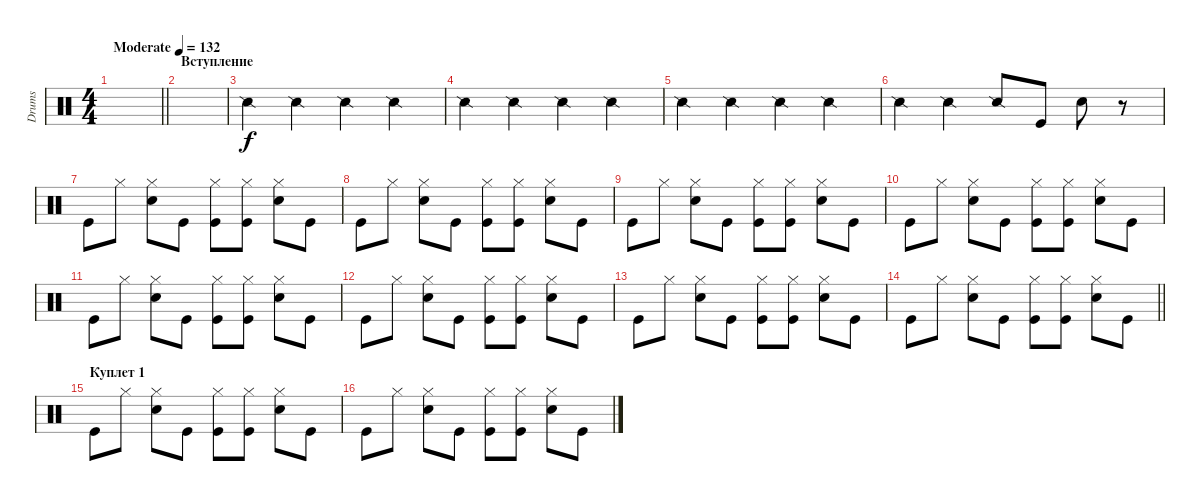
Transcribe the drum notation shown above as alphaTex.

\track ("Drums" "Drums") {instrument percussion}
\staff {score}
\articulation defaults
\ts (4 4)
\tempo (132 "Moderate")
\clef neutral
\barLineRight lightlight
\ks c
|
\section ("" "Вступление")
|
"Snare (side stick) 2".4 "Snare (side stick) 2".4 "Snare (side stick) 2".4 "Snare (side stick) 2".4 |
"Snare (side stick) 2".4 "Snare (side stick) 2".4 "Snare (side stick) 2".4 "Snare (side stick) 2".4 |
"Snare (side stick) 2".4 "Snare (side stick) 2".4 "Snare (side stick) 2".4 "Snare (side stick) 2".4 |
"Snare (side stick) 2".4 "Snare (side stick) 2".4 "Snare (side stick) 2".8 "Kick (hit)".8 "Snare (hit) 2".8 r.8 |
"Kick (hit)".8 "Hi-Hat (closed)".8 ("Hi-Hat (closed)" "Snare (hit) 2").8 "Kick (hit)".8 ("Hi-Hat (closed)" "Kick (hit)").8 ("Hi-Hat (closed)" "Kick (hit)").8 ("Hi-Hat (closed)" "Snare (hit) 2").8 "Kick (hit)".8 |
"Kick (hit)".8 "Hi-Hat (closed)".8 ("Hi-Hat (closed)" "Snare (hit) 2").8 "Kick (hit)".8 ("Hi-Hat (closed)" "Kick (hit)").8 ("Hi-Hat (closed)" "Kick (hit)").8 ("Hi-Hat (closed)" "Snare (hit) 2").8 "Kick (hit)".8 |
"Kick (hit)".8 "Hi-Hat (closed)".8 ("Hi-Hat (closed)" "Snare (hit) 2").8 "Kick (hit)".8 ("Hi-Hat (closed)" "Kick (hit)").8 ("Hi-Hat (closed)" "Kick (hit)").8 ("Hi-Hat (closed)" "Snare (hit) 2").8 "Kick (hit)".8 |
"Kick (hit)".8 "Hi-Hat (closed)".8 ("Hi-Hat (closed)" "Snare (hit) 2").8 "Kick (hit)".8 ("Hi-Hat (closed)" "Kick (hit)").8 ("Hi-Hat (closed)" "Kick (hit)").8 ("Hi-Hat (closed)" "Snare (hit) 2").8 "Kick (hit)".8 |
"Kick (hit)".8 "Hi-Hat (closed)".8 ("Hi-Hat (closed)" "Snare (hit) 2").8 "Kick (hit)".8 ("Hi-Hat (closed)" "Kick (hit)").8 ("Hi-Hat (closed)" "Kick (hit)").8 ("Hi-Hat (closed)" "Snare (hit) 2").8 "Kick (hit)".8 |
"Kick (hit)".8 "Hi-Hat (closed)".8 ("Hi-Hat (closed)" "Snare (hit) 2").8 "Kick (hit)".8 ("Hi-Hat (closed)" "Kick (hit)").8 ("Hi-Hat (closed)" "Kick (hit)").8 ("Hi-Hat (closed)" "Snare (hit) 2").8 "Kick (hit)".8 |
"Kick (hit)".8 "Hi-Hat (closed)".8 ("Hi-Hat (closed)" "Snare (hit) 2").8 "Kick (hit)".8 ("Hi-Hat (closed)" "Kick (hit)").8 ("Hi-Hat (closed)" "Kick (hit)").8 ("Hi-Hat (closed)" "Snare (hit) 2").8 "Kick (hit)".8 |
\barLineRight lightlight "Kick (hit)".8 "Hi-Hat (closed)".8
("Hi-Hat (closed)" "Snare (hit) 2").8 "Kick (hit)".8 ("Hi-Hat (closed)" "Kick (hit)").8 ("Hi-Hat (closed)" "Kick (hit)").8 ("Hi-Hat (closed)" "Snare (hit) 2").8 "Kick (hit)".8 |
\section ("" "Куплет 1")
"Kick (hit)".8 "Hi-Hat (closed)".8 ("Hi-Hat (closed)" "Snare (hit) 2").8 "Kick (hit)".8 ("Hi-Hat (closed)" "Kick (hit)").8 ("Hi-Hat (closed)" "Kick (hit)").8 ("Hi-Hat (closed)" "Snare (hit) 2").8 "Kick (hit)".8 |
"Kick (hit)".8 "Hi-Hat (closed)".8 ("Hi-Hat (closed)" "Snare (hit) 2").8 "Kick (hit)".8 ("Hi-Hat (closed)" "Kick (hit)").8 ("Hi-Hat (closed)" "Kick (hit)").8 ("Hi-Hat (closed)" "Snare (hit) 2").8 "Kick (hit)".8
